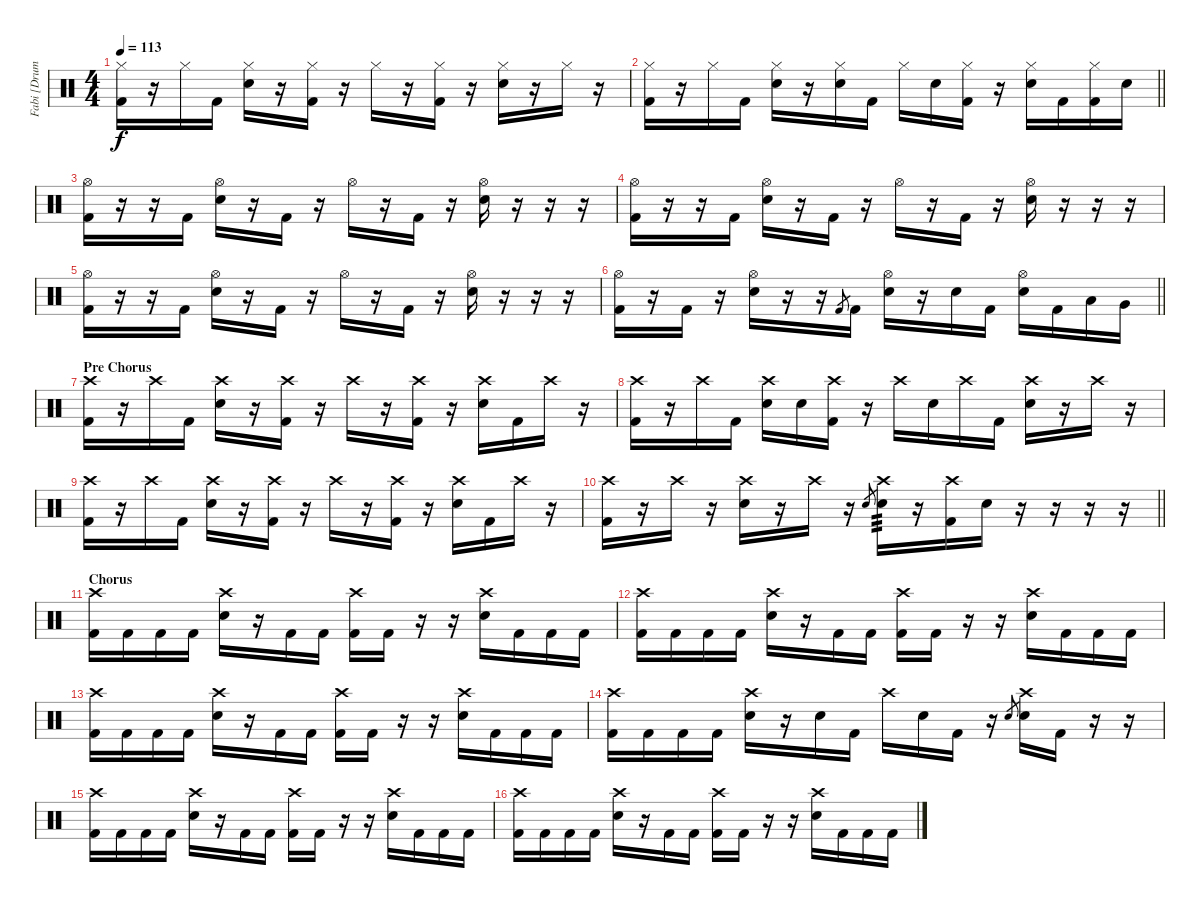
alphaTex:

\track ("Fabi [Drums]" "Fabi [Drum") {instrument percussion}
\staff {score}
\articulation defaults
\ts (4 4)
\tempo 113
\clef neutral
\ks c
("Hi-Hat (closed)" "Kick (hit) 2").16{dy f} r.16 "Hi-Hat (closed)".16 "Kick (hit) 2".16 ("Hi-Hat (closed)" "Electric Snare (hit)").16 r.16 ("Hi-Hat (closed)" "Kick (hit) 2").16 r.16 "Hi-Hat (closed)".16 r.16 ("Hi-Hat (closed)" "Kick (hit) 2").16 r.16 ("Hi-Hat (closed)" "Electric Snare (hit)").16 r.16 "Hi-Hat (closed)".16 r.16 |
\barLineRight lightlight
("Hi-Hat (closed)" "Kick (hit) 2").16 r.16 "Hi-Hat (closed)".16 "Kick (hit) 2".16 ("Hi-Hat (closed)" "Electric Snare (hit)").16 r.16 ("Hi-Hat (closed)" "Electric Snare (hit)").16 "Kick (hit) 2".16 "Hi-Hat (closed)".16 "Electric Snare (hit)".16 ("Hi-Hat (closed)" "Kick (hit) 2").16 r.16 ("Hi-Hat (closed)" "Electric Snare (hit)").16 "Kick (hit) 2".16 ("Hi-Hat (closed)" "Kick (hit) 2").16 "Electric Snare (hit)".16 |
("Hi-Hat (open)" "Kick (hit) 2").16 r.16 r.16 "Kick (hit) 2".16 ("Hi-Hat (open)" "Electric Snare (hit)").16 r.16 "Kick (hit) 2".16 r.16 "Hi-Hat (open)".16 r.16 "Kick (hit) 2".16 r.16 ("Hi-Hat (open)" "Electric Snare (hit)").16 r.16 r.16 r.16 |
("Hi-Hat (open)" "Kick (hit) 2").16 r.16 r.16 "Kick (hit) 2".16 ("Hi-Hat (open)" "Electric Snare (hit)").16 r.16 "Kick (hit) 2".16 r.16 "Hi-Hat (open)".16 r.16 "Kick (hit) 2".16 r.16 ("Hi-Hat (open)" "Electric Snare (hit)").16 r.16 r.16 r.16 |
("Hi-Hat (open)" "Kick (hit) 2").16 r.16 r.16 "Kick (hit) 2".16 ("Hi-Hat (open)" "Electric Snare (hit)").16 r.16 "Kick (hit) 2".16 r.16 "Hi-Hat (open)".16 r.16 "Kick (hit) 2".16 r.16 ("Hi-Hat (open)" "Electric Snare (hit)").16 r.16 r.16 r.16 |
\barLineRight lightlight
("Hi-Hat (open)" "Kick (hit) 2").16 r.16 "Kick (hit) 2".16 r.16 ("Hi-Hat (open)" "Electric Snare (hit)").16 r.16 r.16 "Kick (hit) 2".8{gr} "Kick (hit) 2".16 ("Hi-Hat (open)" "Electric Snare (hit)").16 r.16 "Electric Snare (hit)".16 "Kick (hit) 2".16 ("Hi-Hat (open)" "Electric Snare (hit)").16 "Kick (hit) 2".16 "Low Tom (hit)".16 "Very Low Tom (hit)".16 |
\section ("" "Pre Chorus")
("Crash high (hit)" "Kick (hit) 2").16 r.16 "Crash high (hit)".16 "Kick (hit) 2".16 ("Crash high (hit)" "Electric Snare (hit)").16 r.16 ("Crash high (hit)" "Kick (hit) 2").16 r.16 "Crash high (hit)".16 r.16 ("Crash high (hit)" "Kick (hit) 2").16 r.16 ("Crash high (hit)" "Electric Snare (hit)").16 "Kick (hit) 2".16 "Crash high (hit)".16 r.16 |
("Crash high (hit)" "Kick (hit) 2").16 r.16 "Crash high (hit)".16 "Kick (hit) 2".16 ("Crash high (hit)" "Electric Snare (hit)").16 "Electric Snare (hit)".16 ("Crash high (hit)" "Kick (hit) 2").16 r.16 "Crash high (hit)".16 "Electric Snare (hit)".16 "Crash high (hit)".16 "Kick (hit) 2".16 ("Crash high (hit)" "Electric Snare (hit)").16 r.16 "Crash high (hit)".16 r.16 |
("Crash high (hit)" "Kick (hit) 2").16 r.16 "Crash high (hit)".16 "Kick (hit) 2".16 ("Crash high (hit)" "Electric Snare (hit)").16 r.16 ("Crash high (hit)" "Kick (hit) 2").16 r.16 "Crash high (hit)".16 r.16 ("Crash high (hit)" "Kick (hit) 2").16 r.16 ("Crash high (hit)" "Electric Snare (hit)").16 "Kick (hit) 2".16 "Crash high (hit)".16 r.16 |
\barLineRight lightlight
("Crash high (hit)" "Kick (hit) 2").16 r.16 "Crash high (hit)".16 r.16 ("Crash high (hit)" "Electric Snare (hit)").16 r.16 "Crash high (hit)".16 r.16 "Electric Snare (hit)".8{gr} ("Crash high (hit)" "Electric Snare (hit)").16{tp 3} r.16 ("Crash high (hit)" "Kick (hit) 2").16 "Electric Snare (hit)".16 r.16 r.16 r.16 r.16 |
\section ("" "Chorus")
("Crash high (hit)" "Kick (hit) 2").16 "Kick (hit) 2".16 "Kick (hit) 2".16 "Kick (hit) 2".16 ("Crash high (hit)" "Electric Snare (hit)").16 r.16 "Kick (hit) 2".16 "Kick (hit) 2".16 ("Crash high (hit)" "Kick (hit) 2").16 "Kick (hit) 2".16 r.16 r.16 ("Crash high (hit)" "Electric Snare (hit)").16 "Kick (hit) 2".16 "Kick (hit) 2".16 "Kick (hit) 2".16 |
("Crash high (hit)" "Kick (hit) 2").16 "Kick (hit) 2".16 "Kick (hit) 2".16 "Kick (hit) 2".16 ("Crash high (hit)" "Electric Snare (hit)").16 r.16 "Kick (hit) 2".16 "Kick (hit) 2".16 ("Crash high (hit)" "Kick (hit) 2").16 "Kick (hit) 2".16 r.16 r.16 ("Crash high (hit)" "Electric Snare (hit)").16 "Kick (hit) 2".16 "Kick (hit) 2".16 "Kick (hit) 2".16 |
("Crash high (hit)" "Kick (hit) 2").16 "Kick (hit) 2".16 "Kick (hit) 2".16 "Kick (hit) 2".16 ("Crash high (hit)" "Electric Snare (hit)").16 r.16 "Kick (hit) 2".16 "Kick (hit) 2".16 ("Crash high (hit)" "Kick (hit) 2").16 "Kick (hit) 2".16 r.16 r.16 ("Crash high (hit)" "Electric Snare (hit)").16 "Kick (hit) 2".16 "Kick (hit) 2".16 "Kick (hit) 2".16 |
("Crash high (hit)" "Kick (hit) 2").16 "Kick (hit) 2".16 "Kick (hit) 2".16 "Kick (hit) 2".16 ("Crash high (hit)" "Electric Snare (hit)").16 r.16 "Electric Snare (hit)".16 "Kick (hit) 2".16 "Crash high (hit)".16 "Electric Snare (hit)".16 "Kick (hit) 2".16 r.16 "Electric Snare (hit)".8{gr} ("Crash high (hit)" "Electric Snare (hit)").16 "Kick (hit) 2".16 r.16 r.16 |
("Crash high (hit)" "Kick (hit) 2").16 "Kick (hit) 2".16 "Kick (hit) 2".16 "Kick (hit) 2".16 ("Crash high (hit)" "Electric Snare (hit)").16 r.16 "Kick (hit) 2".16 "Kick (hit) 2".16 ("Crash high (hit)" "Kick (hit) 2").16 "Kick (hit) 2".16 r.16 r.16 ("Crash high (hit)" "Electric Snare (hit)").16 "Kick (hit) 2".16 "Kick (hit) 2".16 "Kick (hit) 2".16 |
("Crash high (hit)" "Kick (hit) 2").16 "Kick (hit) 2".16 "Kick (hit) 2".16 "Kick (hit) 2".16 ("Crash high (hit)" "Electric Snare (hit)").16 r.16 "Kick (hit) 2".16 "Kick (hit) 2".16 ("Crash high (hit)" "Kick (hit) 2").16 "Kick (hit) 2".16 r.16 r.16 ("Crash high (hit)" "Electric Snare (hit)").16 "Kick (hit) 2".16 "Kick (hit) 2".16 "Kick (hit) 2".16
